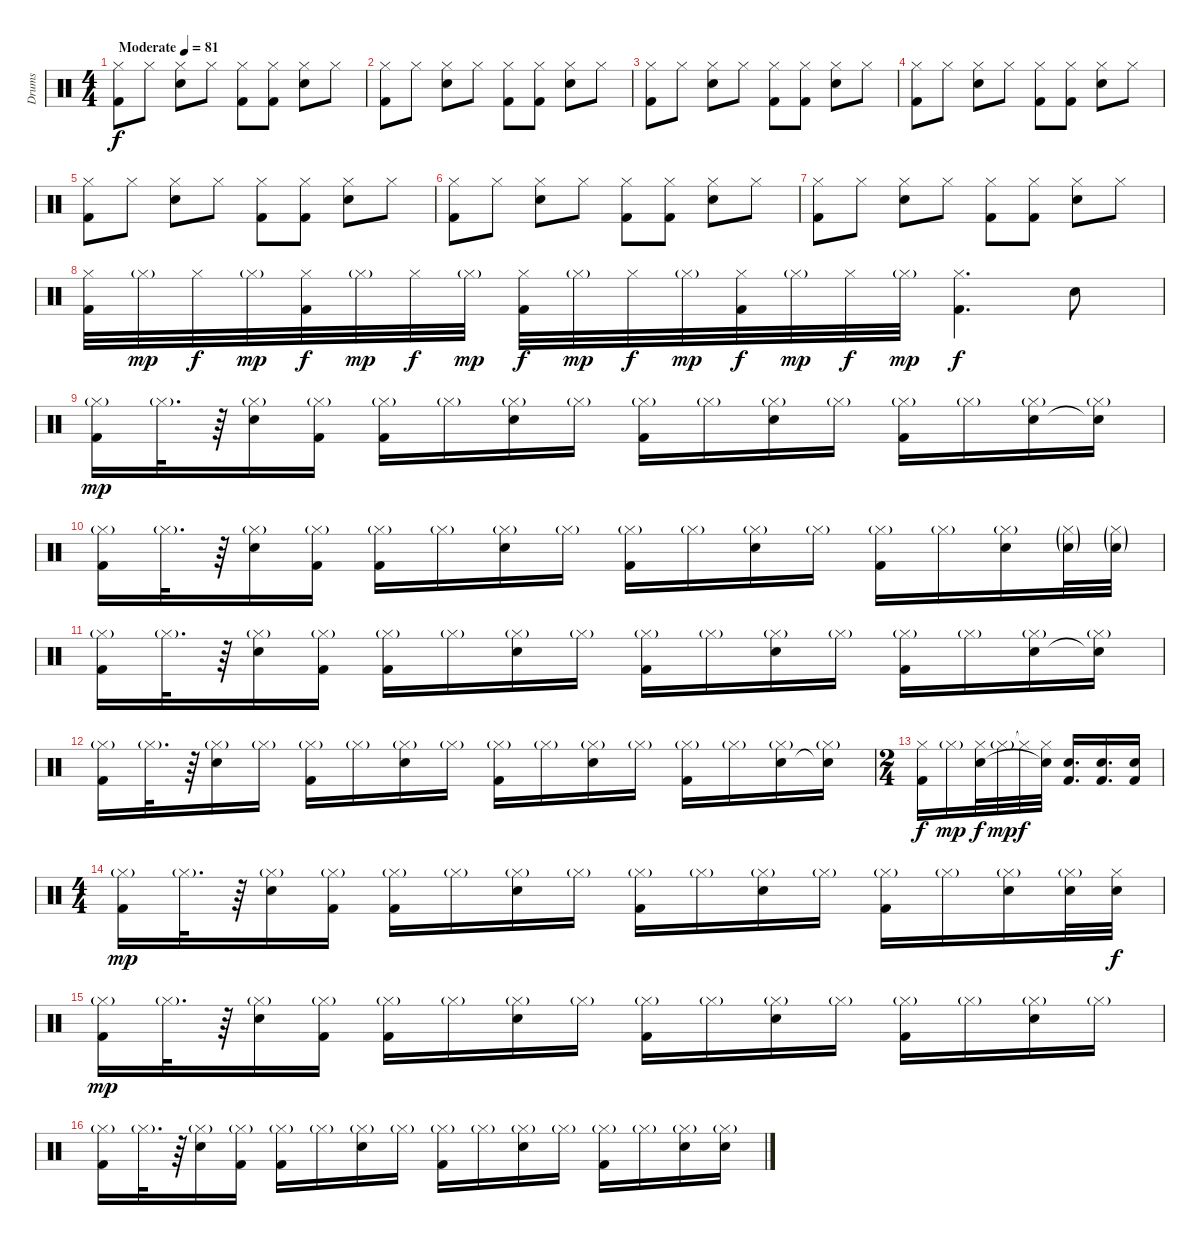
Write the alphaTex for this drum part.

\track ("Drums" "Drums") {instrument percussion}
\staff {score}
\articulation defaults
\ts (4 4)
\tempo (81 "Moderate")
\clef neutral
\ks c
("Hi-Hat (closed)" "Kick (hit) 2").8{dy f} "Hi-Hat (closed)".8 ("Hi-Hat (closed)" "Snare (hit) 2").8 "Hi-Hat (closed)".8 ("Hi-Hat (closed)" "Kick (hit) 2").8 ("Hi-Hat (closed)" "Kick (hit) 2").8 ("Hi-Hat (closed)" "Snare (hit) 2").8 "Hi-Hat (closed)".8 |
("Hi-Hat (closed)" "Kick (hit) 2").8 "Hi-Hat (closed)".8 ("Hi-Hat (closed)" "Snare (hit) 2").8 "Hi-Hat (closed)".8 ("Hi-Hat (closed)" "Kick (hit) 2").8 ("Hi-Hat (closed)" "Kick (hit) 2").8 ("Hi-Hat (closed)" "Snare (hit) 2").8 "Hi-Hat (closed)".8 |
("Hi-Hat (closed)" "Kick (hit) 2").8 "Hi-Hat (closed)".8 ("Hi-Hat (closed)" "Snare (hit) 2").8 "Hi-Hat (closed)".8 ("Hi-Hat (closed)" "Kick (hit) 2").8 ("Hi-Hat (closed)" "Kick (hit) 2").8 ("Hi-Hat (closed)" "Snare (hit) 2").8 "Hi-Hat (closed)".8 |
("Hi-Hat (closed)" "Kick (hit) 2").8 "Hi-Hat (closed)".8 ("Hi-Hat (closed)" "Snare (hit) 2").8 "Hi-Hat (closed)".8 ("Hi-Hat (closed)" "Kick (hit) 2").8 ("Hi-Hat (closed)" "Kick (hit) 2").8 ("Hi-Hat (closed)" "Snare (hit) 2").8 "Hi-Hat (closed)".8 |
("Hi-Hat (closed)" "Kick (hit) 2").8 "Hi-Hat (closed)".8 ("Hi-Hat (closed)" "Snare (hit) 2").8 "Hi-Hat (closed)".8 ("Hi-Hat (closed)" "Kick (hit) 2").8 ("Hi-Hat (closed)" "Kick (hit) 2").8 ("Hi-Hat (closed)" "Snare (hit) 2").8 "Hi-Hat (closed)".8 |
("Hi-Hat (closed)" "Kick (hit) 2").8 "Hi-Hat (closed)".8 ("Hi-Hat (closed)" "Snare (hit) 2").8 "Hi-Hat (closed)".8 ("Hi-Hat (closed)" "Kick (hit) 2").8 ("Hi-Hat (closed)" "Kick (hit) 2").8 ("Hi-Hat (closed)" "Snare (hit) 2").8 "Hi-Hat (closed)".8 |
("Hi-Hat (closed)" "Kick (hit) 2").8 "Hi-Hat (closed)".8 ("Hi-Hat (closed)" "Snare (hit) 2").8 "Hi-Hat (closed)".8 ("Hi-Hat (closed)" "Kick (hit) 2").8 ("Hi-Hat (closed)" "Kick (hit) 2").8 ("Hi-Hat (closed)" "Snare (hit) 2").8 "Hi-Hat (closed)".8 |
("Hi-Hat (closed)" "Kick (hit) 2").32 "Hi-Hat (closed)"{g}.32{dy mp} "Hi-Hat (closed)".32{dy f} "Hi-Hat (closed)"{g}.32{dy mp} ("Hi-Hat (closed)" "Kick (hit) 2").32{dy f} "Hi-Hat (closed)"{g}.32{dy mp} "Hi-Hat (closed)".32{dy f} "Hi-Hat (closed)"{g}.32{dy mp} ("Hi-Hat (closed)" "Kick (hit) 2").32{dy f} "Hi-Hat (closed)"{g}.32{dy mp} "Hi-Hat (closed)".32{dy f} "Hi-Hat (closed)"{g}.32{dy mp} ("Hi-Hat (closed)" "Kick (hit) 2").32{dy f} "Hi-Hat (closed)"{g}.32{dy mp} "Hi-Hat (closed)".32{dy f} "Hi-Hat (closed)"{g}.32{dy mp} ("Hi-Hat (closed)" "Kick (hit) 2").4{d dy f} "Snare (hit) 2".8 |
("Hi-Hat (closed)"{g} "Kick (hit) 2").16{dy mp} "Hi-Hat (closed)"{g}.32{d} r.64 ("Hi-Hat (closed)"{g} "Snare (hit) 2").16 ("Hi-Hat (closed)"{g} "Kick (hit) 2").16 ("Hi-Hat (closed)"{g} "Kick (hit) 2").16 "Hi-Hat (closed)"{g}.16 ("Hi-Hat (closed)"{g} "Snare (hit) 2").16 "Hi-Hat (closed)"{g}.16 ("Hi-Hat (closed)"{g} "Kick (hit) 2").16 "Hi-Hat (closed)"{g}.16 ("Hi-Hat (closed)"{g} "Snare (hit) 2").16 "Hi-Hat (closed)"{g}.16 ("Hi-Hat (closed)"{g} "Kick (hit) 2").16 "Hi-Hat (closed)"{g}.16 ("Hi-Hat (closed)"{g} "Snare (hit) 2").16 ("Hi-Hat (closed)"{g} "Snare (hit)"{t}).16 |
("Hi-Hat (closed)"{g} "Kick (hit) 2").16 "Hi-Hat (closed)"{g}.32{d} r.64 ("Hi-Hat (closed)"{g} "Snare (hit) 2").16 ("Hi-Hat (closed)"{g} "Kick (hit) 2").16 ("Hi-Hat (closed)"{g} "Kick (hit) 2").16 "Hi-Hat (closed)"{g}.16 ("Hi-Hat (closed)"{g} "Snare (hit) 2").16 "Hi-Hat (closed)"{g}.16 ("Hi-Hat (closed)"{g} "Kick (hit) 2").16 "Hi-Hat (closed)"{g}.16 ("Hi-Hat (closed)"{g} "Snare (hit) 2").16 "Hi-Hat (closed)"{g}.16 ("Hi-Hat (closed)"{g} "Kick (hit) 2").16 "Hi-Hat (closed)"{g}.16 ("Hi-Hat (closed)"{g} "Snare (hit) 2").16 ("Hi-Hat (closed)"{g} "Snare (hit) 2"{g}).32 ("Hi-Hat (closed)"{g} "Snare (hit) 2"{g}).32 |
("Hi-Hat (closed)"{g} "Kick (hit) 2").16 "Hi-Hat (closed)"{g}.32{d} r.64 ("Hi-Hat (closed)"{g} "Snare (hit) 2").16 ("Hi-Hat (closed)"{g} "Kick (hit) 2").16 ("Hi-Hat (closed)"{g} "Kick (hit) 2").16 "Hi-Hat (closed)"{g}.16 ("Hi-Hat (closed)"{g} "Snare (hit) 2").16 "Hi-Hat (closed)"{g}.16 ("Hi-Hat (closed)"{g} "Kick (hit) 2").16 "Hi-Hat (closed)"{g}.16 ("Hi-Hat (closed)"{g} "Snare (hit) 2").16 "Hi-Hat (closed)"{g}.16 ("Hi-Hat (closed)"{g} "Kick (hit) 2").16 "Hi-Hat (closed)"{g}.16 ("Hi-Hat (closed)"{g} "Snare (hit) 2").16 ("Hi-Hat (closed)"{g} "Snare (hit)"{t}).16 |
("Hi-Hat (closed)"{g} "Kick (hit) 2").16 "Hi-Hat (closed)"{g}.32{d} r.64 ("Hi-Hat (closed)"{g} "Snare (hit) 2").16 "Hi-Hat (closed)"{g}.16 ("Hi-Hat (closed)"{g} "Kick (hit) 2").16 "Hi-Hat (closed)"{g}.16 ("Hi-Hat (closed)"{g} "Snare (hit) 2").16 "Hi-Hat (closed)"{g}.16 ("Hi-Hat (closed)"{g} "Kick (hit) 2").16 "Hi-Hat (closed)"{g}.16 ("Hi-Hat (closed)"{g} "Snare (hit) 2").16 "Hi-Hat (closed)"{g}.16 ("Hi-Hat (closed)"{g} "Kick (hit) 2").16 "Hi-Hat (closed)"{g}.16 ("Hi-Hat (closed)"{g} "Snare (hit) 2").16 ("Hi-Hat (closed)"{g} "Snare (hit)"{t}).16 |
\ts (2 4)
("Hi-Hat (closed)" "Kick (hit) 2").16{dy f} "Hi-Hat (closed)"{g}.16{dy mp} ("Hi-Hat (closed)" "Snare (hit) 2").32{dy f} "Hi-Hat (closed)"{g}.32{dy mp} "Hi-Hat (closed)"{t}.32{dy f} ("Hi-Hat (closed)" "Snare (hit) 2"{t}).32 ("Snare (hit) 2" "Kick (hit) 2").16{d} ("Snare (hit) 2" "Kick (hit) 2").16{d} ("Snare (hit) 2" "Kick (hit) 2").16 |
\ts (4 4)
("Hi-Hat (closed)"{g} "Kick (hit) 2").16{dy mp} "Hi-Hat (closed)"{g}.32{d} r.64 ("Hi-Hat (closed)"{g} "Snare (hit) 2").16 ("Hi-Hat (closed)"{g} "Kick (hit) 2").16 ("Hi-Hat (closed)"{g} "Kick (hit) 2").16 "Hi-Hat (closed)"{g}.16 ("Hi-Hat (closed)"{g} "Snare (hit) 2").16 "Hi-Hat (closed)"{g}.16 ("Hi-Hat (closed)"{g} "Kick (hit) 2").16 "Hi-Hat (closed)"{g}.16 ("Hi-Hat (closed)"{g} "Snare (hit) 2").16 "Hi-Hat (closed)"{g}.16 ("Hi-Hat (closed)"{g} "Kick (hit) 2").16 "Hi-Hat (closed)"{g}.16 ("Hi-Hat (closed)"{g} "Snare (hit) 2").16 ("Hi-Hat (closed)"{g} "Snare (hit) 2").32 ("Hi-Hat (closed)" "Snare (hit) 2").32{dy f} |
("Hi-Hat (closed)"{g} "Kick (hit) 2").16{dy mp} "Hi-Hat (closed)"{g}.32{d} r.64 ("Hi-Hat (closed)"{g} "Snare (hit) 2").16 ("Hi-Hat (closed)"{g} "Kick (hit) 2").16 ("Hi-Hat (closed)"{g} "Kick (hit) 2").16 "Hi-Hat (closed)"{g}.16 ("Hi-Hat (closed)"{g} "Snare (hit) 2").16 "Hi-Hat (closed)"{g}.16 ("Hi-Hat (closed)"{g} "Kick (hit) 2").16 "Hi-Hat (closed)"{g}.16 ("Hi-Hat (closed)"{g} "Snare (hit) 2").16 "Hi-Hat (closed)"{g}.16 ("Hi-Hat (closed)"{g} "Kick (hit) 2").16 "Hi-Hat (closed)"{g}.16 ("Hi-Hat (closed)"{g} "Snare (hit) 2").16 "Hi-Hat (closed)"{g}.16 |
("Hi-Hat (closed)"{g} "Kick (hit) 2").16 "Hi-Hat (closed)"{g}.32{d} r.64 ("Hi-Hat (closed)"{g} "Snare (hit) 2").16 ("Hi-Hat (closed)"{g} "Kick (hit) 2").16 ("Hi-Hat (closed)"{g} "Kick (hit) 2").16 "Hi-Hat (closed)"{g}.16 ("Hi-Hat (closed)"{g} "Snare (hit) 2").16 "Hi-Hat (closed)"{g}.16 ("Hi-Hat (closed)"{g} "Kick (hit) 2").16 "Hi-Hat (closed)"{g}.16 ("Hi-Hat (closed)"{g} "Snare (hit) 2").16 "Hi-Hat (closed)"{g}.16 ("Hi-Hat (closed)"{g} "Kick (hit) 2").16 "Hi-Hat (closed)"{g}.16 ("Hi-Hat (closed)"{g} "Snare (hit) 2").16 ("Hi-Hat (closed)"{g} "Snare (hit) 2").16
